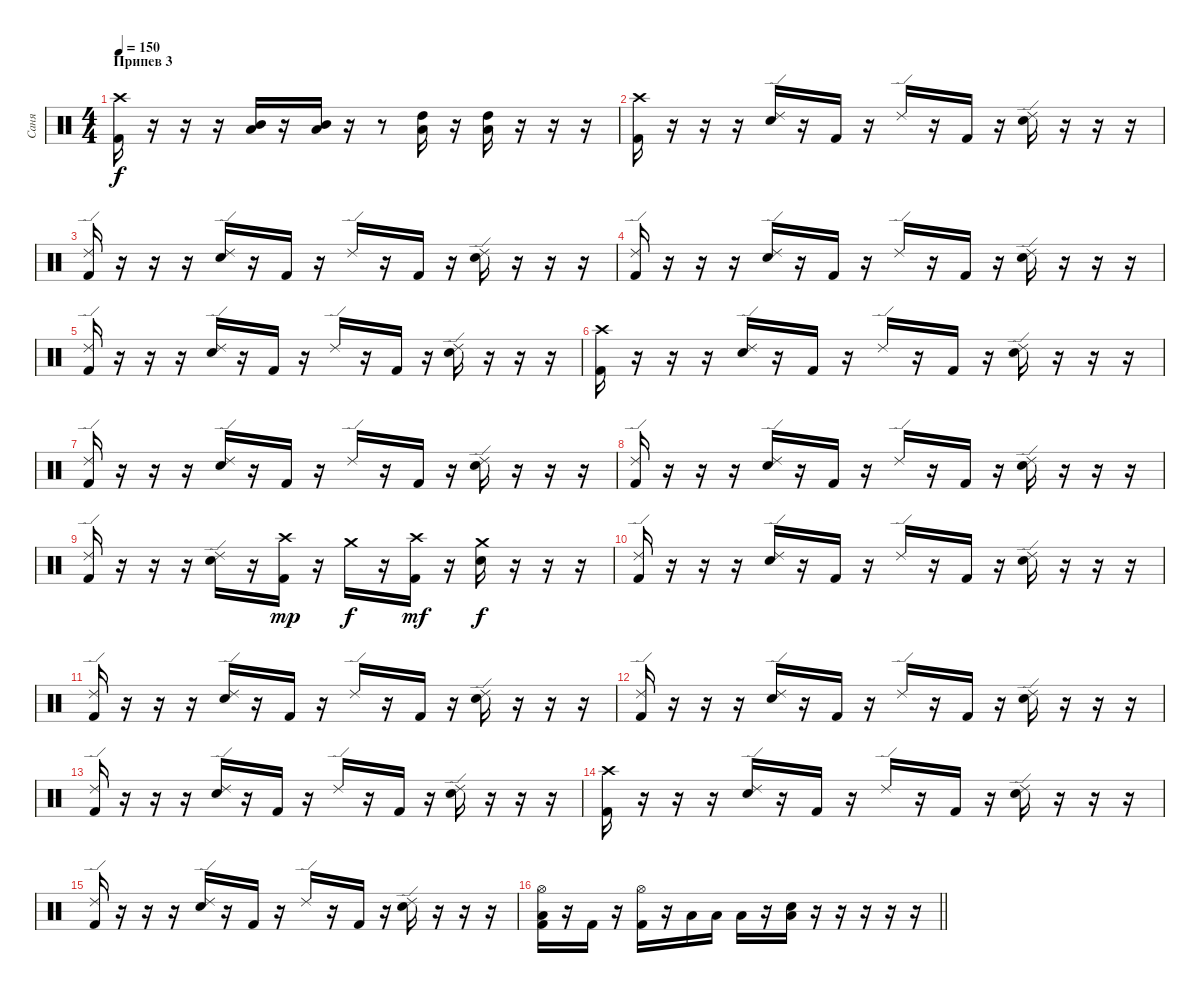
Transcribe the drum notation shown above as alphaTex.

\track ("Саня" "Саня") {instrument percussion}
\staff {score}
\articulation defaults
\ts (4 4)
\section ("" "Припев 3")
\tempo 150
\clef neutral
\ks c
("Kick (hit) 2" "Crash high (hit)").16{dy f} r.16 r.16 r.16 ("Mid Tom (hit)" "Low Floor Tom (hit)").16 r.16 ("Mid Tom (hit)" "Low Floor Tom (hit)").16 r.16 r.8 ("High Tom (hit)" "Low Floor Tom (hit)").16 r.16 ("High Tom (hit)" "Low Floor Tom (hit)").16 r.16 r.16 r.16 |
("Kick (hit) 2" "Crash high (hit)").16 r.16 r.16 r.16 ("Snare (hit) 2" "Ride (edge) 2").16 r.16 "Kick (hit) 2".16 r.16 "Ride (edge) 2".16 r.16 "Kick (hit) 2".16 r.16 ("Snare (hit) 2" "Ride (edge) 2").16 r.16 r.16 r.16 |
("Kick (hit) 2" "Ride (edge) 2").16 r.16 r.16 r.16 ("Snare (hit) 2" "Ride (edge) 2").16 r.16 "Kick (hit) 2".16 r.16 "Ride (edge) 2".16 r.16 "Kick (hit) 2".16 r.16 ("Snare (hit) 2" "Ride (edge) 2").16 r.16 r.16 r.16 |
("Kick (hit) 2" "Ride (edge) 2").16 r.16 r.16 r.16 ("Snare (hit) 2" "Ride (edge) 2").16 r.16 "Kick (hit) 2".16 r.16 "Ride (edge) 2".16 r.16 "Kick (hit) 2".16 r.16 ("Snare (hit) 2" "Ride (edge) 2").16 r.16 r.16 r.16 |
("Kick (hit) 2" "Ride (edge) 2").16 r.16 r.16 r.16 ("Snare (hit) 2" "Ride (edge) 2").16 r.16 "Kick (hit) 2".16 r.16 "Ride (edge) 2".16 r.16 "Kick (hit) 2".16 r.16 ("Snare (hit) 2" "Ride (edge) 2").16 r.16 r.16 r.16 |
("Kick (hit) 2" "Crash high (hit)").16 r.16 r.16 r.16 ("Snare (hit) 2" "Ride (edge) 2").16 r.16 "Kick (hit) 2".16 r.16 "Ride (edge) 2".16 r.16 "Kick (hit) 2".16 r.16 ("Snare (hit) 2" "Ride (edge) 2").16 r.16 r.16 r.16 |
("Kick (hit) 2" "Ride (edge) 2").16 r.16 r.16 r.16 ("Snare (hit) 2" "Ride (edge) 2").16 r.16 "Kick (hit) 2".16 r.16 "Ride (edge) 2".16 r.16 "Kick (hit) 2".16 r.16 ("Snare (hit) 2" "Ride (edge) 2").16 r.16 r.16 r.16 |
("Kick (hit) 2" "Ride (edge) 2").16 r.16 r.16 r.16 ("Snare (hit) 2" "Ride (edge) 2").16 r.16 "Kick (hit) 2".16 r.16 "Ride (edge) 2".16 r.16 "Kick (hit) 2".16 r.16 ("Snare (hit) 2" "Ride (edge) 2").16 r.16 r.16 r.16 |
("Kick (hit) 2" "Ride (edge) 2").16 r.16 r.16 r.16 ("Snare (hit) 2" "Ride (edge) 2").16 r.16 ("Kick (hit) 2" "Crash high (hit)").16{dy mp} r.16 "Crash medium (hit)".16{dy f} r.16 ("Kick (hit) 2" "Crash high (hit)").16{dy mf} r.16 ("Snare (hit) 2" "Crash medium (hit)").16{dy f} r.16 r.16 r.16 |
("Kick (hit) 2" "Ride (edge) 2").16 r.16 r.16 r.16 ("Snare (hit) 2" "Ride (edge) 2").16 r.16 "Kick (hit) 2".16 r.16 "Ride (edge) 2".16 r.16 "Kick (hit) 2".16 r.16 ("Snare (hit) 2" "Ride (edge) 2").16 r.16 r.16 r.16 |
("Kick (hit) 2" "Ride (edge) 2").16 r.16 r.16 r.16 ("Snare (hit) 2" "Ride (edge) 2").16 r.16 "Kick (hit) 2".16 r.16 "Ride (edge) 2".16 r.16 "Kick (hit) 2".16 r.16 ("Snare (hit) 2" "Ride (edge) 2").16 r.16 r.16 r.16 |
("Kick (hit) 2" "Ride (edge) 2").16 r.16 r.16 r.16 ("Snare (hit) 2" "Ride (edge) 2").16 r.16 "Kick (hit) 2".16 r.16 "Ride (edge) 2".16 r.16 "Kick (hit) 2".16 r.16 ("Snare (hit) 2" "Ride (edge) 2").16 r.16 r.16 r.16 |
("Kick (hit) 2" "Ride (edge) 2").16 r.16 r.16 r.16 ("Snare (hit) 2" "Ride (edge) 2").16 r.16 "Kick (hit) 2".16 r.16 "Ride (edge) 2".16 r.16 "Kick (hit) 2".16 r.16 ("Snare (hit) 2" "Ride (edge) 2").16 r.16 r.16 r.16 |
("Kick (hit) 2" "Crash high (hit)").16 r.16 r.16 r.16 ("Snare (hit) 2" "Ride (edge) 2").16 r.16 "Kick (hit) 2".16 r.16 "Ride (edge) 2".16 r.16 "Kick (hit) 2".16 r.16 ("Snare (hit) 2" "Ride (edge) 2").16 r.16 r.16 r.16 |
("Kick (hit) 2" "Ride (edge) 2").16 r.16 r.16 r.16 ("Snare (hit) 2" "Ride (edge) 2").16 r.16 "Kick (hit) 2".16 r.16 "Ride (edge) 2".16 r.16 "Kick (hit) 2".16 r.16 ("Snare (hit) 2" "Ride (edge) 2").16 r.16 r.16 r.16 |
\barLineRight lightlight
("Low Floor Tom (hit)" "Hi-Hat (open)" "Kick (hit) 2").16 r.16 "Kick (hit) 2".16 r.16 ("Hi-Hat (open)" "Kick (hit) 2").16 r.16 "Low Floor Tom (hit)".16 "Low Floor Tom (hit)".16 "Low Floor Tom (hit)".16 r.16 ("Low Floor Tom (hit)" "Snare (hit) 2").16 r.16 r.16 r.16 r.16 r.16
